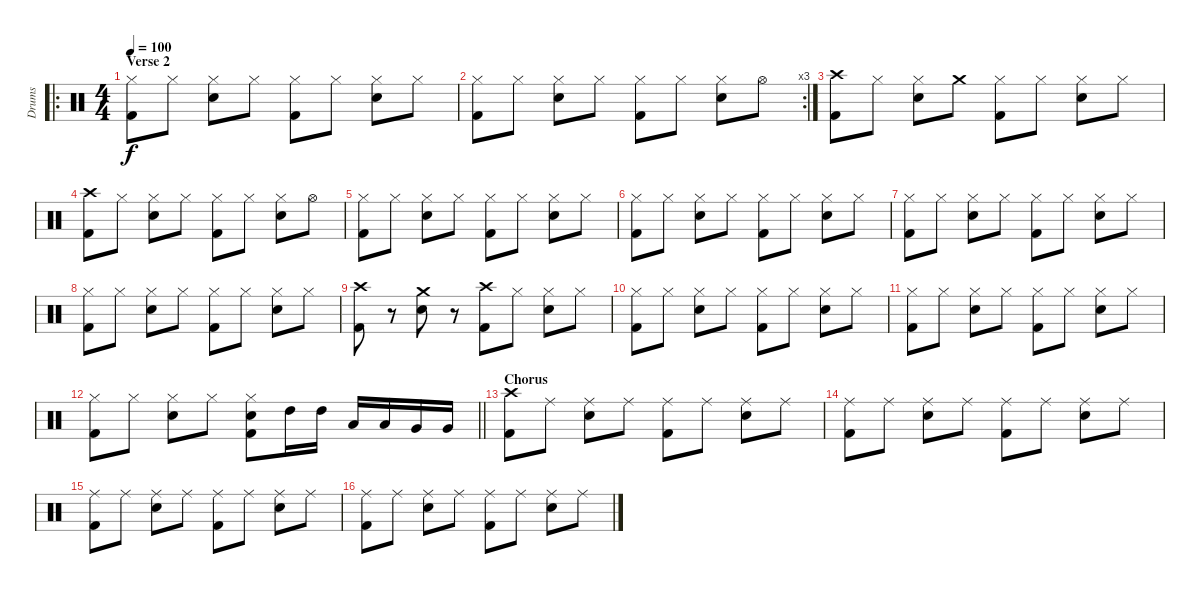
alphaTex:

\track ("Drums" "Drums") {instrument percussion}
\staff {score}
\articulation defaults
\ro
\ts (4 4)
\section ("" "Verse 2")
\tempo 100
\clef neutral
\ks c
("Hi-Hat (closed)" "Kick (hit) 2").8{dy f} "Hi-Hat (closed)".8 ("Hi-Hat (closed)" "Snare (hit) 2").8 "Hi-Hat (closed)".8 ("Hi-Hat (closed)" "Kick (hit) 2").8 "Hi-Hat (closed)".8 ("Hi-Hat (closed)" "Snare (hit) 2").8 "Hi-Hat (closed)".8 |
\rc 3
("Hi-Hat (closed)" "Kick (hit) 2").8 "Hi-Hat (closed)".8 ("Hi-Hat (closed)" "Snare (hit) 2").8 "Hi-Hat (closed)".8 ("Hi-Hat (closed)" "Kick (hit) 2").8 "Hi-Hat (closed)".8 ("Hi-Hat (closed)" "Snare (hit) 2").8 "Hi-Hat (open)".8 |
("Crash high (hit)" "Kick (hit) 2").8 "Hi-Hat (closed)".8 ("Hi-Hat (closed)" "Snare (hit) 2").8 "Crash medium (hit)".8 ("Hi-Hat (closed)" "Kick (hit) 2").8 "Hi-Hat (closed)".8 ("Hi-Hat (closed)" "Snare (hit) 2").8 "Hi-Hat (closed)".8 |
("Crash high (hit)" "Kick (hit) 2").8 "Hi-Hat (closed)".8 ("Hi-Hat (closed)" "Snare (hit) 2").8 "Hi-Hat (closed)".8 ("Hi-Hat (closed)" "Kick (hit) 2").8 "Hi-Hat (closed)".8 ("Hi-Hat (closed)" "Snare (hit) 2").8 "Hi-Hat (open)".8 |
("Hi-Hat (closed)" "Kick (hit) 2").8 "Hi-Hat (closed)".8 ("Hi-Hat (closed)" "Snare (hit) 2").8 "Hi-Hat (closed)".8 ("Hi-Hat (closed)" "Kick (hit) 2").8 "Hi-Hat (closed)".8 ("Hi-Hat (closed)" "Snare (hit) 2").8 "Hi-Hat (closed)".8 |
("Hi-Hat (closed)" "Kick (hit) 2").8 "Hi-Hat (closed)".8 ("Hi-Hat (closed)" "Snare (hit) 2").8 "Hi-Hat (closed)".8 ("Hi-Hat (closed)" "Kick (hit) 2").8 "Hi-Hat (closed)".8 ("Hi-Hat (closed)" "Snare (hit) 2").8 "Hi-Hat (closed)".8 |
("Hi-Hat (closed)" "Kick (hit) 2").8 "Hi-Hat (closed)".8 ("Hi-Hat (closed)" "Snare (hit) 2").8 "Hi-Hat (closed)".8 ("Hi-Hat (closed)" "Kick (hit) 2").8 "Hi-Hat (closed)".8 ("Hi-Hat (closed)" "Snare (hit) 2").8 "Hi-Hat (closed)".8 |
("Hi-Hat (closed)" "Kick (hit) 2").8 "Hi-Hat (closed)".8 ("Hi-Hat (closed)" "Snare (hit) 2").8 "Hi-Hat (closed)".8 ("Hi-Hat (closed)" "Kick (hit) 2").8 "Hi-Hat (closed)".8 ("Hi-Hat (closed)" "Snare (hit) 2").8 "Hi-Hat (closed)".8 |
("Crash high (hit)" "Kick (hit) 2").8 r.8 ("Crash medium (hit)" "Snare (hit) 2").8 r.8 ("Crash high (hit)" "Kick (hit) 2").8 "Hi-Hat (closed)".8 ("Hi-Hat (closed)" "Snare (hit) 2").8 "Hi-Hat (closed)".8 |
("Hi-Hat (closed)" "Kick (hit) 2").8 "Hi-Hat (closed)".8 ("Hi-Hat (closed)" "Snare (hit) 2").8 "Hi-Hat (closed)".8 ("Hi-Hat (closed)" "Kick (hit) 2").8 "Hi-Hat (closed)".8 ("Hi-Hat (closed)" "Snare (hit) 2").8 "Hi-Hat (closed)".8 |
("Hi-Hat (closed)" "Kick (hit) 2").8 "Hi-Hat (closed)".8 ("Hi-Hat (closed)" "Snare (hit) 2").8 "Hi-Hat (closed)".8 ("Hi-Hat (closed)" "Kick (hit) 2").8 "Hi-Hat (closed)".8 ("Hi-Hat (closed)" "Snare (hit) 2").8 "Hi-Hat (closed)".8 |
\barLineRight lightlight
("Hi-Hat (closed)" "Kick (hit) 2").8 "Hi-Hat (closed)".8 ("Hi-Hat (closed)" "Snare (hit) 2").8 "Hi-Hat (closed)".8 ("Hi-Hat (closed)" "Snare (hit) 2" "Kick (hit) 2").8 "High Tom (hit)".16 "High Tom (hit)".16 "Low Tom (hit)".16 "Low Tom (hit)".16 "Very Low Tom (hit)".16 "Very Low Tom (hit)".16 |
\section ("" "Chorus")
("Crash high (hit)" "Kick (hit) 2").8 "Ride (middle)".8 ("Ride (middle)" "Snare (hit) 2").8 "Ride (middle)".8 ("Ride (middle)" "Kick (hit) 2").8 "Ride (middle)".8 ("Ride (middle)" "Snare (hit) 2").8 "Ride (middle)".8 |
("Ride (middle)" "Kick (hit) 2").8 "Ride (middle)".8 ("Ride (middle)" "Snare (hit) 2").8 "Ride (middle)".8 ("Ride (middle)" "Kick (hit) 2").8 "Ride (middle)".8 ("Ride (middle)" "Snare (hit) 2").8 "Ride (middle)".8 |
("Ride (middle)" "Kick (hit) 2").8 "Ride (middle)".8 ("Ride (middle)" "Snare (hit) 2").8 "Ride (middle)".8 ("Ride (middle)" "Kick (hit) 2").8 "Ride (middle)".8 ("Ride (middle)" "Snare (hit) 2").8 "Ride (middle)".8 |
("Ride (middle)" "Kick (hit) 2").8 "Ride (middle)".8 ("Ride (middle)" "Snare (hit) 2").8 "Ride (middle)".8 ("Ride (middle)" "Kick (hit) 2").8 "Ride (middle)".8 ("Ride (middle)" "Snare (hit) 2").8 "Ride (middle)".8
